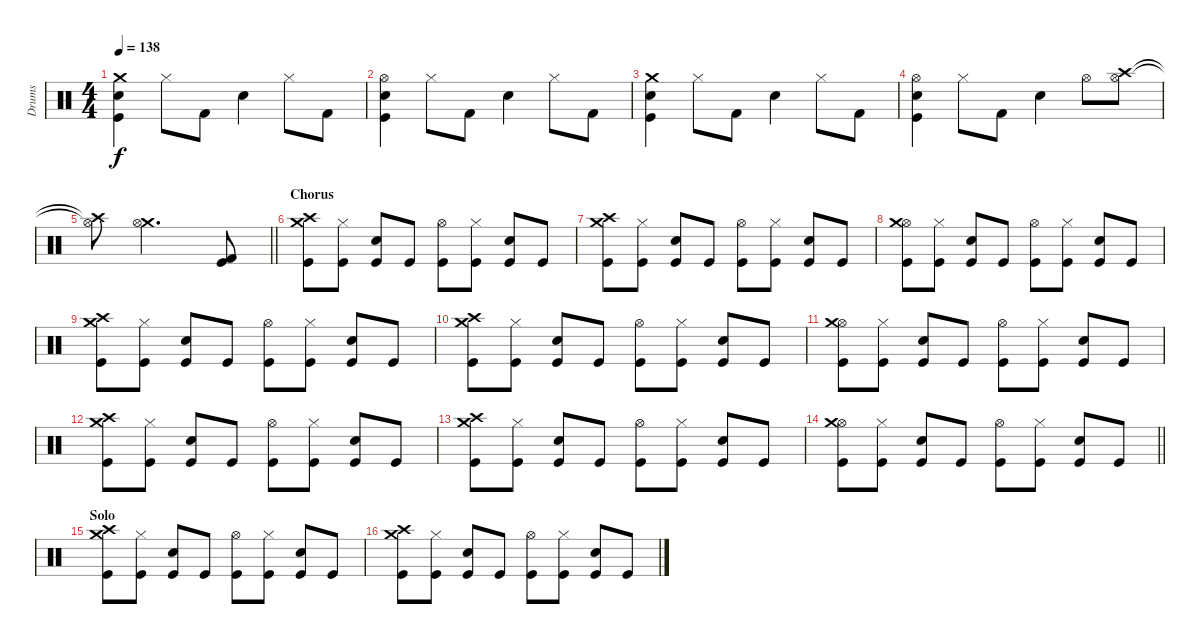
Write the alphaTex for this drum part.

\track ("Drums" "Drums") {instrument percussion}
\staff {score}
\articulation defaults
\ts (4 4)
\tempo 138
\clef neutral
\ks c
("Crash medium (hit)" "Electric Snare (hit)" "Kick (hit)").4{dy f} "Hi-Hat (closed)".8 "Kick (hit) 2".8 "Electric Snare (hit)".4 "Hi-Hat (closed)".8 "Kick (hit) 2".8 |
("Hi-Hat (open)" "Electric Snare (hit)" "Kick (hit)").4 "Hi-Hat (closed)".8 "Kick (hit) 2".8 "Electric Snare (hit)".4 "Hi-Hat (closed)".8 "Kick (hit) 2".8 |
("Crash medium (hit)" "Electric Snare (hit)" "Kick (hit)").4 "Hi-Hat (closed)".8 "Kick (hit) 2".8 "Electric Snare (hit)".4 "Hi-Hat (closed)".8 "Kick (hit) 2".8 |
("Hi-Hat (open)" "Electric Snare (hit)" "Kick (hit)").4 "Hi-Hat (closed)".8 "Kick (hit) 2".8 "Electric Snare (hit)".4 "Hi-Hat (open)".8 ("Crash high (hit)" "Hi-Hat (open)").8 |
\barLineRight lightlight
("Crash high (hit)"{t} "Hi-Hat (open)"{t}).8 ("Crash medium (hit)" "Hi-Hat (open)").2{d} ("Kick (hit)" "Kick (hit) 2").8{volume 13} |
\section ("" "Chorus")
("Kick (hit)" "Crash high (hit)" "Crash medium (hit)").8 ("Hi-Hat (closed)" "Kick (hit)").8 ("Electric Snare (hit)" "Kick (hit)").8 "Kick (hit)".8 ("Hi-Hat (open)" "Kick (hit)").8 ("Hi-Hat (closed)" "Kick (hit)").8 ("Electric Snare (hit)" "Kick (hit)").8 "Kick (hit)".8 |
("Kick (hit)" "Crash high (hit)" "Crash medium (hit)").8 ("Hi-Hat (closed)" "Kick (hit)").8 ("Electric Snare (hit)" "Kick (hit)").8 "Kick (hit)".8 ("Hi-Hat (open)" "Kick (hit)").8 ("Hi-Hat (closed)" "Kick (hit)").8 ("Electric Snare (hit)" "Kick (hit)").8 "Kick (hit)".8 |
("Kick (hit)" "Hi-Hat (open)" "Crash medium (hit)").8 ("Hi-Hat (closed)" "Kick (hit)").8 ("Electric Snare (hit)" "Kick (hit)").8 "Kick (hit)".8 ("Hi-Hat (open)" "Kick (hit)").8 ("Hi-Hat (closed)" "Kick (hit)").8 ("Electric Snare (hit)" "Kick (hit)").8 "Kick (hit)".8 |
("Kick (hit)" "Crash high (hit)" "Crash medium (hit)").8 ("Hi-Hat (closed)" "Kick (hit)").8 ("Electric Snare (hit)" "Kick (hit)").8 "Kick (hit)".8 ("Hi-Hat (open)" "Kick (hit)").8 ("Hi-Hat (closed)" "Kick (hit)").8 ("Electric Snare (hit)" "Kick (hit)").8 "Kick (hit)".8 |
("Kick (hit)" "Crash high (hit)" "Crash medium (hit)").8 ("Hi-Hat (closed)" "Kick (hit)").8 ("Electric Snare (hit)" "Kick (hit)").8 "Kick (hit)".8 ("Hi-Hat (open)" "Kick (hit)").8 ("Hi-Hat (closed)" "Kick (hit)").8 ("Electric Snare (hit)" "Kick (hit)").8 "Kick (hit)".8 |
("Kick (hit)" "Hi-Hat (open)" "Crash medium (hit)").8 ("Hi-Hat (closed)" "Kick (hit)").8 ("Electric Snare (hit)" "Kick (hit)").8 "Kick (hit)".8 ("Hi-Hat (open)" "Kick (hit)").8 ("Hi-Hat (closed)" "Kick (hit)").8 ("Electric Snare (hit)" "Kick (hit)").8 "Kick (hit)".8 |
("Kick (hit)" "Crash high (hit)" "Crash medium (hit)").8 ("Hi-Hat (closed)" "Kick (hit)").8 ("Electric Snare (hit)" "Kick (hit)").8 "Kick (hit)".8 ("Hi-Hat (open)" "Kick (hit)").8 ("Hi-Hat (closed)" "Kick (hit)").8 ("Electric Snare (hit)" "Kick (hit)").8 "Kick (hit)".8 |
("Kick (hit)" "Crash high (hit)" "Crash medium (hit)").8 ("Hi-Hat (closed)" "Kick (hit)").8 ("Electric Snare (hit)" "Kick (hit)").8 "Kick (hit)".8 ("Hi-Hat (open)" "Kick (hit)").8 ("Hi-Hat (closed)" "Kick (hit)").8 ("Electric Snare (hit)" "Kick (hit)").8 "Kick (hit)".8 |
\barLineRight lightlight
("Kick (hit)" "Hi-Hat (open)" "Crash medium (hit)").8 ("Hi-Hat (closed)" "Kick (hit)").8 ("Electric Snare (hit)" "Kick (hit)").8 "Kick (hit)".8 ("Hi-Hat (open)" "Kick (hit)").8 ("Hi-Hat (closed)" "Kick (hit)").8 ("Electric Snare (hit)" "Kick (hit)").8 "Kick (hit)".8 |
\section ("" "Solo")
("Kick (hit)" "Crash high (hit)" "Crash medium (hit)").8 ("Hi-Hat (closed)" "Kick (hit)").8 ("Electric Snare (hit)" "Kick (hit)").8 "Kick (hit)".8 ("Hi-Hat (open)" "Kick (hit)").8 ("Hi-Hat (closed)" "Kick (hit)").8 ("Electric Snare (hit)" "Kick (hit)").8 "Kick (hit)".8 |
("Kick (hit)" "Crash high (hit)" "Crash medium (hit)").8 ("Hi-Hat (closed)" "Kick (hit)").8 ("Electric Snare (hit)" "Kick (hit)").8 "Kick (hit)".8 ("Hi-Hat (open)" "Kick (hit)").8 ("Hi-Hat (closed)" "Kick (hit)").8 ("Electric Snare (hit)" "Kick (hit)").8 "Kick (hit)".8
